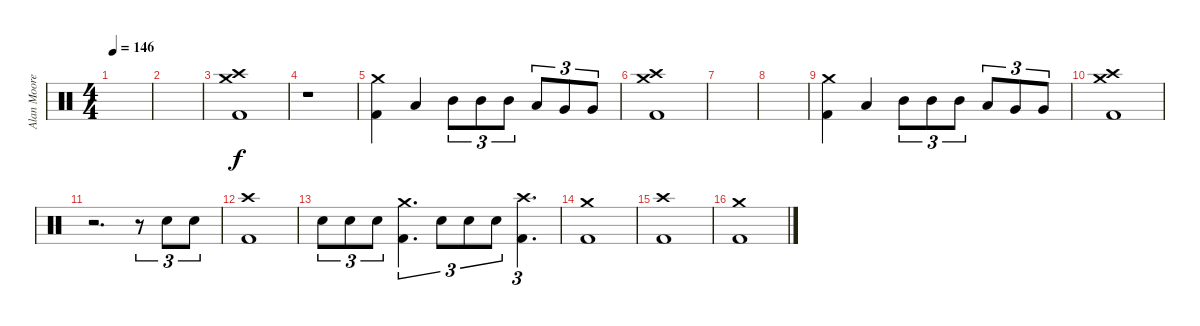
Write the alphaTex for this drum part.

\track ("Alan Moore" "Alan Moore") {instrument percussion}
\staff {score}
\articulation defaults
\ts (4 4)
\tempo 146
\clef neutral
\ks c
|
|
("Crash medium (hit)" "Crash high (hit)" "Kick (hit) 2").1 |
r.1 |
("Crash medium (hit)" "Kick (hit) 2").4 "Low Tom (hit)".4 "Mid Tom (hit)".8{tu (3 2)} "Mid Tom (hit)".8{tu (3 2)} "Mid Tom (hit)".8{tu (3 2)} "Low Tom (hit)".8{tu (3 2)} "Very Low Tom (hit)".8{tu (3 2)} "Very Low Tom (hit)".8{tu (3 2)} |
("Crash medium (hit)" "Crash high (hit)" "Kick (hit) 2").1 |
|
|
("Crash medium (hit)" "Kick (hit) 2").4 "Low Tom (hit)".4 "Mid Tom (hit)".8{tu (3 2)} "Mid Tom (hit)".8{tu (3 2)} "Mid Tom (hit)".8{tu (3 2)} "Low Tom (hit)".8{tu (3 2)} "Very Low Tom (hit)".8{tu (3 2)} "Very Low Tom (hit)".8{tu (3 2)} |
("Crash high (hit)" "Crash medium (hit)" "Kick (hit) 2").1 |
r.2{d} r.8{tu (3 2)} "Electric Snare (hit)".8{tu (3 2)} "Electric Snare (hit)".8{tu (3 2)} |
("Crash high (hit)" "Kick (hit) 2").1 |
"Electric Snare (hit)".8{tu (3 2)} "Electric Snare (hit)".8{tu (3 2)} "Electric Snare (hit)".8{tu (3 2)} ("Crash medium (hit)" "Kick (hit) 2").4{d tu (3 2)} "Electric Snare (hit)".8{tu (3 2)} "Electric Snare (hit)".8{tu (3 2)} "Electric Snare (hit)".8{tu (3 2)} ("Crash high (hit)" "Kick (hit) 2").4{d tu (3 2)} |
("Crash medium (hit)" "Kick (hit) 2").1 |
("Crash high (hit)" "Kick (hit) 2").1 |
("Crash medium (hit)" "Kick (hit) 2").1
